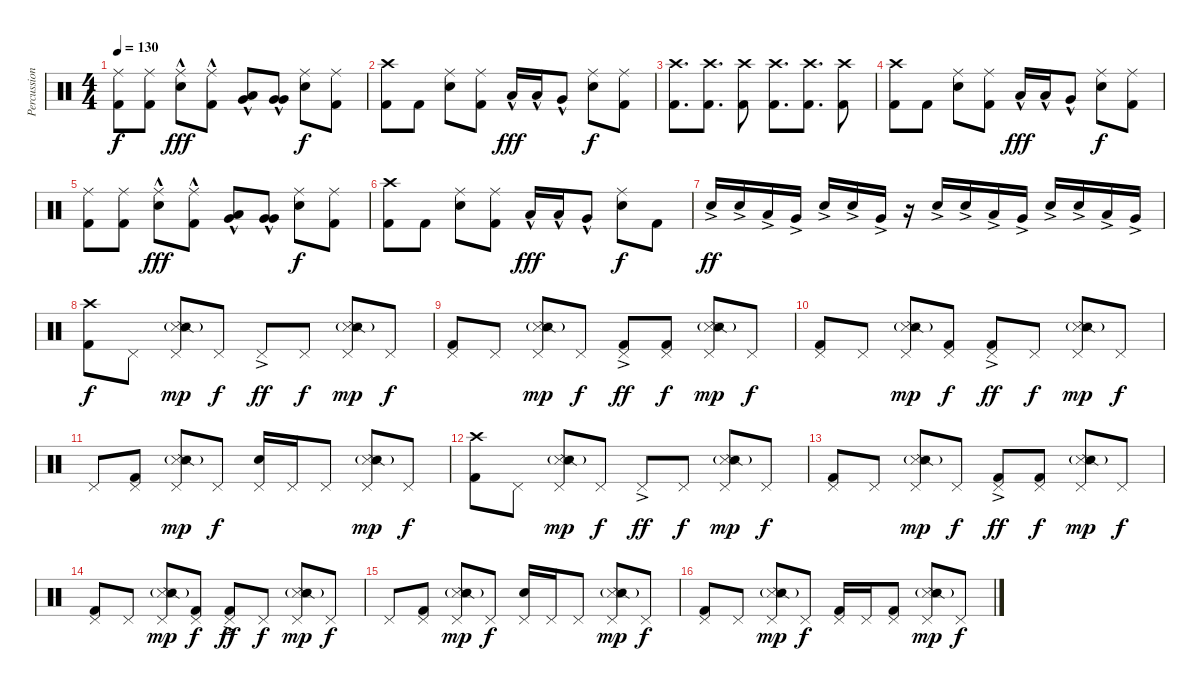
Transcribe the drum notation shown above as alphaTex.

\track ("Percussion" "Percussion") {instrument percussion}
\staff {score}
\articulation defaults
\ts (4 4)
\tempo 130
\clef neutral
\ks c
("Ride (middle)" "Kick (hit) 2").8{dy f} ("Ride (middle)" "Kick (hit) 2").8 ("Ride (middle)" "Snare (hit) 2"{hac}).8{dy fff} ("Ride (middle)" "Kick (hit) 2"{hac}).8 ("Very Low Tom (hit)" "Low Tom (hit)"{hac}).8 ("Very Low Tom (hit)" "Very Low Tom (hit)"{hac}).8 ("Ride (middle)" "Snare (hit) 2").8{dy f} ("Ride (middle)" "Kick (hit) 2").8 |
("Crash high (hit)" "Kick (hit) 2").8 "Kick (hit) 2".8 ("Ride (middle)" "Snare (hit) 2").8 ("Ride (middle)" "Kick (hit) 2").8 "Low Tom (hit)"{hac}.16{dy fff} "Low Tom (hit)"{hac}.16 "Very Low Tom (hit)"{hac}.8 ("Ride (middle)" "Snare (hit) 2").8{dy f} ("Ride (middle)" "Kick (hit) 2").8 |
("Crash high (hit)" "Kick (hit) 2").8{d} ("Crash high (hit)" "Kick (hit) 2").8{d} ("Crash high (hit)" "Kick (hit) 2").8 ("Crash high (hit)" "Kick (hit) 2").8{d} ("Crash high (hit)" "Kick (hit) 2").8{d} ("Crash high (hit)" "Kick (hit) 2").8 |
("Crash high (hit)" "Kick (hit) 2").8 "Kick (hit) 2".8 ("Ride (middle)" "Snare (hit) 2").8 ("Ride (middle)" "Kick (hit) 2").8 "Low Tom (hit)"{hac}.16{dy fff} "Low Tom (hit)"{hac}.16 "Very Low Tom (hit)"{hac}.8 ("Ride (middle)" "Snare (hit) 2").8{dy f} ("Ride (middle)" "Kick (hit) 2").8 |
("Ride (middle)" "Kick (hit) 2").8 ("Ride (middle)" "Kick (hit) 2").8 ("Ride (middle)" "Snare (hit) 2"{hac}).8{dy fff} ("Ride (middle)" "Kick (hit) 2"{hac}).8 ("Very Low Tom (hit)" "Low Tom (hit)"{hac}).8 ("Very Low Tom (hit)" "Very Low Tom (hit)"{hac}).8 ("Ride (middle)" "Snare (hit) 2").8{dy f} ("Ride (middle)" "Kick (hit) 2").8 |
("Crash high (hit)" "Kick (hit) 2").8 "Kick (hit) 2".8 ("Ride (middle)" "Snare (hit) 2").8 ("Ride (middle)" "Kick (hit) 2").8 "Low Tom (hit)"{hac}.16{dy fff} "Low Tom (hit)"{hac}.16 "Very Low Tom (hit)"{hac}.8 ("Ride (middle)" "Snare (hit) 2").8{dy f} "Kick (hit) 2".8 |
"Electric Snare (hit)"{ac}.16{dy ff} "Electric Snare (hit)"{ac}.16 "Low Tom (hit)"{ac}.16 "Very Low Tom (hit)"{ac}.16 "Electric Snare (hit)"{ac}.16 "Electric Snare (hit)"{ac}.16 "Very Low Tom (hit)"{ac}.16 r.16 "Electric Snare (hit)"{ac}.16 "Electric Snare (hit)"{ac}.16 "Low Tom (hit)"{ac}.16 "Very Low Tom (hit)"{ac}.16 "Electric Snare (hit)"{ac}.16 "Electric Snare (hit)"{ac}.16 "Low Tom (hit)"{ac}.16 "Very Low Tom (hit)"{ac}.16 |
("Kick (hit) 2" "Crash high (hit)").8{dy f} "Pedal Hi-Hat (hit)".8 ("Pedal Hi-Hat (hit)" "Snare (side stick) 3" "Snare (side stick) 2"{g}).8{dy mp} "Pedal Hi-Hat (hit)".8{dy f} "Pedal Hi-Hat (hit)"{ac}.8{dy ff} "Pedal Hi-Hat (hit)".8{dy f} ("Pedal Hi-Hat (hit)" "Snare (side stick) 3" "Snare (side stick) 2"{g}).8{dy mp} "Pedal Hi-Hat (hit)".8{dy f} |
("Pedal Hi-Hat (hit)" "Kick (hit) 2").8 "Pedal Hi-Hat (hit)".8 ("Pedal Hi-Hat (hit)" "Snare (side stick) 3" "Snare (side stick) 2"{g}).8{dy mp} "Pedal Hi-Hat (hit)".8{dy f} ("Pedal Hi-Hat (hit)"{ac} "Kick (hit) 2").8{dy ff} ("Pedal Hi-Hat (hit)" "Kick (hit) 2").8{dy f} ("Pedal Hi-Hat (hit)" "Snare (side stick) 3" "Snare (side stick) 2"{g}).8{dy mp} "Pedal Hi-Hat (hit)".8{dy f} |
("Pedal Hi-Hat (hit)" "Kick (hit) 2").8 "Pedal Hi-Hat (hit)".8 ("Pedal Hi-Hat (hit)" "Snare (side stick) 3" "Snare (side stick) 2"{g}).8{dy mp} ("Pedal Hi-Hat (hit)" "Kick (hit) 2").8{dy f} ("Pedal Hi-Hat (hit)"{ac} "Kick (hit) 2").8{dy ff} "Pedal Hi-Hat (hit)".8{dy f} ("Pedal Hi-Hat (hit)" "Snare (side stick) 3" "Snare (side stick) 2"{g}).8{dy mp} "Pedal Hi-Hat (hit)".8{dy f} |
"Pedal Hi-Hat (hit)".8 ("Pedal Hi-Hat (hit)" "Kick (hit) 2").8 ("Pedal Hi-Hat (hit)" "Snare (side stick) 3" "Snare (side stick) 2"{g}).8{dy mp} "Pedal Hi-Hat (hit)".8{dy f} ("Pedal Hi-Hat (hit)" "Electric Snare (hit)").16 "Pedal Hi-Hat (hit)".16 "Pedal Hi-Hat (hit)".8 ("Pedal Hi-Hat (hit)" "Snare (side stick) 3" "Snare (side stick) 2"{g}).8{dy mp} "Pedal Hi-Hat (hit)".8{dy f} |
("Kick (hit) 2" "Crash high (hit)").8 "Pedal Hi-Hat (hit)".8 ("Pedal Hi-Hat (hit)" "Snare (side stick) 3" "Snare (side stick) 2"{g}).8{dy mp} "Pedal Hi-Hat (hit)".8{dy f} "Pedal Hi-Hat (hit)"{ac}.8{dy ff} "Pedal Hi-Hat (hit)".8{dy f} ("Pedal Hi-Hat (hit)" "Snare (side stick) 3" "Snare (side stick) 2"{g}).8{dy mp} "Pedal Hi-Hat (hit)".8{dy f} |
("Pedal Hi-Hat (hit)" "Kick (hit) 2").8 "Pedal Hi-Hat (hit)".8 ("Pedal Hi-Hat (hit)" "Snare (side stick) 3" "Snare (side stick) 2"{g}).8{dy mp} "Pedal Hi-Hat (hit)".8{dy f} ("Pedal Hi-Hat (hit)"{ac} "Kick (hit) 2").8{dy ff} ("Pedal Hi-Hat (hit)" "Kick (hit) 2").8{dy f} ("Pedal Hi-Hat (hit)" "Snare (side stick) 3" "Snare (side stick) 2"{g}).8{dy mp} "Pedal Hi-Hat (hit)".8{dy f} |
("Pedal Hi-Hat (hit)" "Kick (hit) 2").8 "Pedal Hi-Hat (hit)".8 ("Pedal Hi-Hat (hit)" "Snare (side stick) 3" "Snare (side stick) 2"{g}).8{dy mp} ("Pedal Hi-Hat (hit)" "Kick (hit) 2").8{dy f} ("Pedal Hi-Hat (hit)"{ac} "Kick (hit) 2").8{dy ff} "Pedal Hi-Hat (hit)".8{dy f} ("Pedal Hi-Hat (hit)" "Snare (side stick) 3" "Snare (side stick) 2"{g}).8{dy mp} "Pedal Hi-Hat (hit)".8{dy f} |
"Pedal Hi-Hat (hit)".8 ("Pedal Hi-Hat (hit)" "Kick (hit) 2").8 ("Pedal Hi-Hat (hit)" "Snare (side stick) 3" "Snare (side stick) 2"{g}).8{dy mp} "Pedal Hi-Hat (hit)".8{dy f} ("Pedal Hi-Hat (hit)" "Electric Snare (hit)").16 "Pedal Hi-Hat (hit)".16 "Pedal Hi-Hat (hit)".8 ("Pedal Hi-Hat (hit)" "Snare (side stick) 3" "Snare (side stick) 2"{g}).8{dy mp} "Pedal Hi-Hat (hit)".8{dy f} |
("Pedal Hi-Hat (hit)" "Kick (hit) 2").8 "Pedal Hi-Hat (hit)".8 ("Pedal Hi-Hat (hit)" "Snare (side stick) 3" "Snare (side stick) 2"{g}).8{dy mp} "Pedal Hi-Hat (hit)".8{dy f} ("Pedal Hi-Hat (hit)" "Kick (hit) 2").16 "Pedal Hi-Hat (hit)".16 ("Pedal Hi-Hat (hit)" "Kick (hit) 2").8 ("Pedal Hi-Hat (hit)" "Snare (side stick) 3" "Snare (side stick) 2"{g}).8{dy mp} "Pedal Hi-Hat (hit)".8{dy f}
